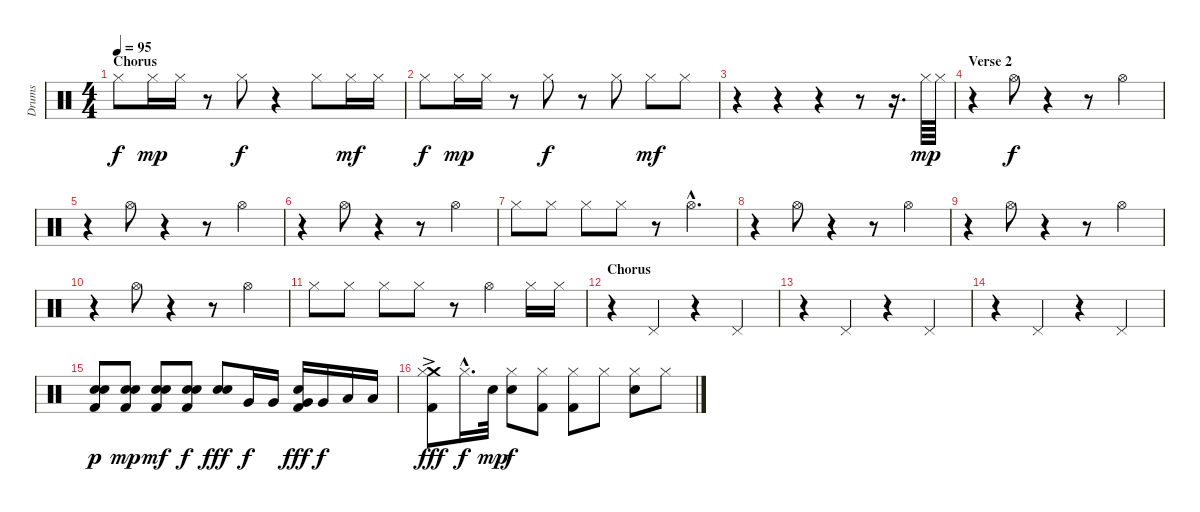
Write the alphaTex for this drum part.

\track ("Drums" "Drums") {instrument percussion}
\staff {score}
\articulation defaults
\ts (4 4)
\section ("" "Chorus")
\tempo 95
\clef neutral
\ks c "Hi-Hat (closed)".8{dy f} "Hi-Hat (closed)".16{dy mp} "Hi-Hat (closed)".16
r.8 "Hi-Hat (closed)".8{dy f} r.4 "Hi-Hat (closed)".8 "Hi-Hat (closed)".16{dy mf} "Hi-Hat (closed)".16 |
"Hi-Hat (closed)".8{dy f} "Hi-Hat (closed)".16{dy mp} "Hi-Hat (closed)".16 r.8 "Hi-Hat (closed)".8{dy f} r.8 "Hi-Hat (closed)".8 "Hi-Hat (closed)".8{dy mf} "Hi-Hat (closed)".8 |
r.4 r.4 r.4 r.8 r.16{d} "Hi-Hat (closed)".64{dy mp} "Hi-Hat (closed)".64 |
\section ("" "Verse 2")
r.4 "Hi-Hat (open)".8{dy f} r.4 r.8 "Hi-Hat (open)".4 |
r.4 "Hi-Hat (open)".8 r.4 r.8 "Hi-Hat (open)".4 |
r.4 "Hi-Hat (open)".8 r.4 r.8 "Hi-Hat (open)".4 |
"Hi-Hat (closed)".8 "Hi-Hat (closed)".8 "Hi-Hat (closed)".8 "Hi-Hat (closed)".8 r.8 "Hi-Hat (open)"{hac}.4{d} |
r.4 "Hi-Hat (open)".8 r.4 r.8 "Hi-Hat (open)".4 |
r.4 "Hi-Hat (open)".8 r.4 r.8 "Hi-Hat (open)".4 |
r.4 "Hi-Hat (open)".8 r.4 r.8 "Hi-Hat (open)".4 |
"Hi-Hat (closed)".8 "Hi-Hat (closed)".8 "Hi-Hat (closed)".8 "Hi-Hat (closed)".8 r.8 "Hi-Hat (open)".4 "Hi-Hat (closed)".16 "Hi-Hat (closed)".16 |
\section ("" "Chorus")
r.4 "Pedal Hi-Hat (hit)".4 r.4 "Pedal Hi-Hat (hit)".4 |
r.4 "Pedal Hi-Hat (hit)".4 r.4 "Pedal Hi-Hat (hit)".4 |
r.4 "Pedal Hi-Hat (hit)".4 r.4 "Pedal Hi-Hat (hit)".4 |
("Snare (hit) 2" "Snare (hit) 2" "Kick (hit) 2").8{dy p} ("Snare (hit) 2" "Snare (hit) 2" "Kick (hit) 2").8{dy mp} ("Snare (hit) 2" "Snare (hit) 2" "Kick (hit) 2").8{dy mf} ("Snare (hit) 2" "Snare (hit) 2" "Kick (hit) 2").8{dy f} ("Snare (hit) 2" "Snare (hit) 2").8{dy fff} "Very Low Tom (hit)".16{dy f} "Very Low Tom (hit)".16 ("Very Low Tom (hit)" "Snare (hit) 2" "Kick (hit) 2").16{dy fff} "Very Low Tom (hit)".16{dy f} "Low Floor Tom (hit)".16 "Low Floor Tom (hit)".16 |
("Crash medium (hit)"{ac} "Hi-Hat (closed)" "Kick (hit) 2").8{dy fff} "Hi-Hat (closed)"{hac}.16{d dy f} "Snare (hit) 2".32{dy mp} ("Hi-Hat (closed)" "Snare (hit) 2").8{dy f} ("Hi-Hat (closed)" "Kick (hit) 2").8 ("Hi-Hat (closed)" "Kick (hit) 2").8 "Hi-Hat (closed)".8 ("Hi-Hat (closed)" "Snare (hit) 2").8 "Hi-Hat (closed)".8
